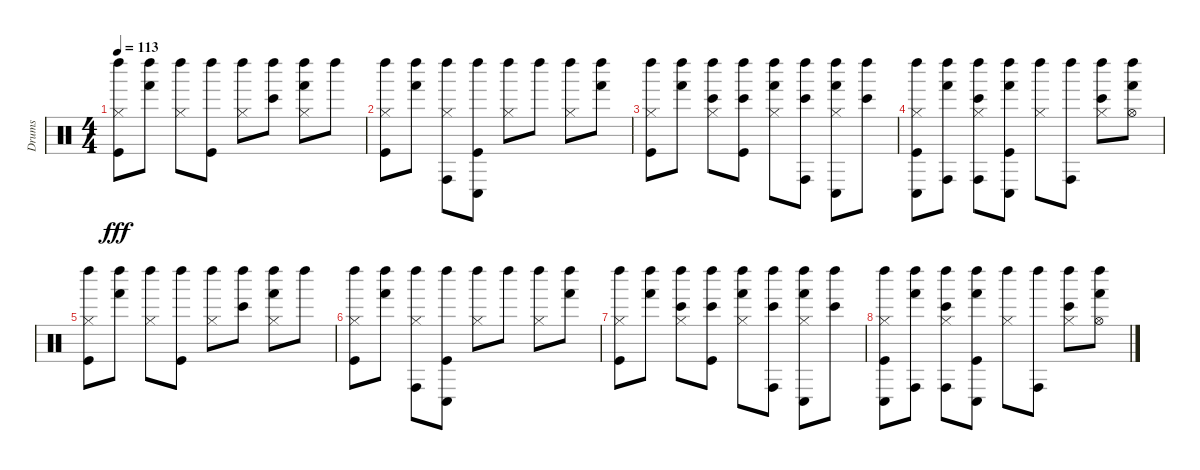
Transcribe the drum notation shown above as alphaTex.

\track ("Drums" "Drums") {instrument percussion}
\staff {score}
\articulation defaults
\ts (4 4)
\tempo 113
\clef neutral
\ks c
("Hi-Hat (closed)" "Left Maraca (hit)" "Kick (hit)").8{dy fff} ("Left Maraca (hit)" "Hand (hit)").8 ("Hi-Hat (closed)" "Left Maraca (hit)").8 ("Left Maraca (hit)" "Kick (hit)").8 ("Hi-Hat (closed)" "Left Maraca (hit)").8 ("Left Maraca (hit)" "Bongo High (hit)").8 ("Hi-Hat (closed)" "Left Maraca (hit)" "Hand (hit)").8 "Left Maraca (hit)".8 |
("Hi-Hat (closed)" "Left Maraca (hit)" "Kick (hit)").8 ("Left Maraca (hit)" "Hand (hit)").8 ("Hi-Hat (closed)" "Left Maraca (hit)" "Conga high (hit)").8 ("Left Maraca (hit)" "Conga low (hit)" "Kick (hit)").8 ("Hi-Hat (closed)" "Left Maraca (hit)").8 "Left Maraca (hit)".8 ("Hi-Hat (closed)" "Left Maraca (hit)").8 ("Left Maraca (hit)" "Hand (hit)").8 |
("Hi-Hat (closed)" "Left Maraca (hit)" "Kick (hit)").8 ("Left Maraca (hit)" "Hand (hit)").8 ("Hi-Hat (closed)" "Left Maraca (hit)" "Bongo High (hit)").8 ("Left Maraca (hit)" "Bongo High (hit)" "Kick (hit)").8 ("Hi-Hat (closed)" "Left Maraca (hit)" "Hand (hit)").8 ("Left Maraca (hit)" "Conga high (hit)" "Bongo High (hit)").8 ("Hi-Hat (closed)" "Left Maraca (hit)" "Conga low (hit)" "Hand (hit)").8 ("Left Maraca (hit)" "Bongo High (hit)").8 |
("Hi-Hat (closed)" "Left Maraca (hit)" "Conga low (hit)" "Kick (hit)").8 ("Left Maraca (hit)" "Conga high (hit)" "Hand (hit)").8 ("Hi-Hat (closed)" "Left Maraca (hit)" "Conga high (hit)" "Bongo High (hit)").8 ("Left Maraca (hit)" "Conga low (hit)" "Hand (hit)" "Kick (hit)").8 ("Hi-Hat (closed)" "Left Maraca (hit)").8 ("Left Maraca (hit)" "Conga high (hit)").8 ("Hi-Hat (closed)" "Left Maraca (hit)" "Bongo High (hit)").8 ("Hi-Hat (open)" "Left Maraca (hit)" "Hand (hit)").8 |
("Hi-Hat (closed)" "Left Maraca (hit)" "Kick (hit)").8{volume 7} ("Left Maraca (hit)" "Hand (hit)").8 ("Hi-Hat (closed)" "Left Maraca (hit)").8 ("Left Maraca (hit)" "Kick (hit)").8 ("Hi-Hat (closed)" "Left Maraca (hit)").8 ("Left Maraca (hit)" "Bongo High (hit)").8 ("Hi-Hat (closed)" "Left Maraca (hit)" "Hand (hit)").8 "Left Maraca (hit)".8 |
("Hi-Hat (closed)" "Left Maraca (hit)" "Kick (hit)").8 ("Left Maraca (hit)" "Hand (hit)").8 ("Hi-Hat (closed)" "Left Maraca (hit)" "Conga high (hit)").8 ("Left Maraca (hit)" "Conga low (hit)" "Kick (hit)").8 ("Hi-Hat (closed)" "Left Maraca (hit)").8 "Left Maraca (hit)".8 ("Hi-Hat (closed)" "Left Maraca (hit)").8 ("Left Maraca (hit)" "Hand (hit)").8 |
("Hi-Hat (closed)" "Left Maraca (hit)" "Kick (hit)").8{volume 0} ("Left Maraca (hit)" "Hand (hit)").8 ("Hi-Hat (closed)" "Left Maraca (hit)" "Bongo High (hit)").8 ("Left Maraca (hit)" "Bongo High (hit)" "Kick (hit)").8 ("Hi-Hat (closed)" "Left Maraca (hit)" "Hand (hit)").8 ("Left Maraca (hit)" "Conga high (hit)" "Bongo High (hit)").8 ("Hi-Hat (closed)" "Left Maraca (hit)" "Conga low (hit)" "Hand (hit)").8 ("Left Maraca (hit)" "Bongo High (hit)").8 |
("Hi-Hat (closed)" "Left Maraca (hit)" "Conga low (hit)" "Kick (hit)").8 ("Left Maraca (hit)" "Conga high (hit)" "Hand (hit)").8 ("Hi-Hat (closed)" "Left Maraca (hit)" "Conga high (hit)" "Bongo High (hit)").8 ("Left Maraca (hit)" "Conga low (hit)" "Hand (hit)" "Kick (hit)").8 ("Hi-Hat (closed)" "Left Maraca (hit)").8 ("Left Maraca (hit)" "Conga high (hit)").8 ("Hi-Hat (closed)" "Left Maraca (hit)" "Bongo High (hit)").8 ("Hi-Hat (open)" "Left Maraca (hit)" "Hand (hit)").8
